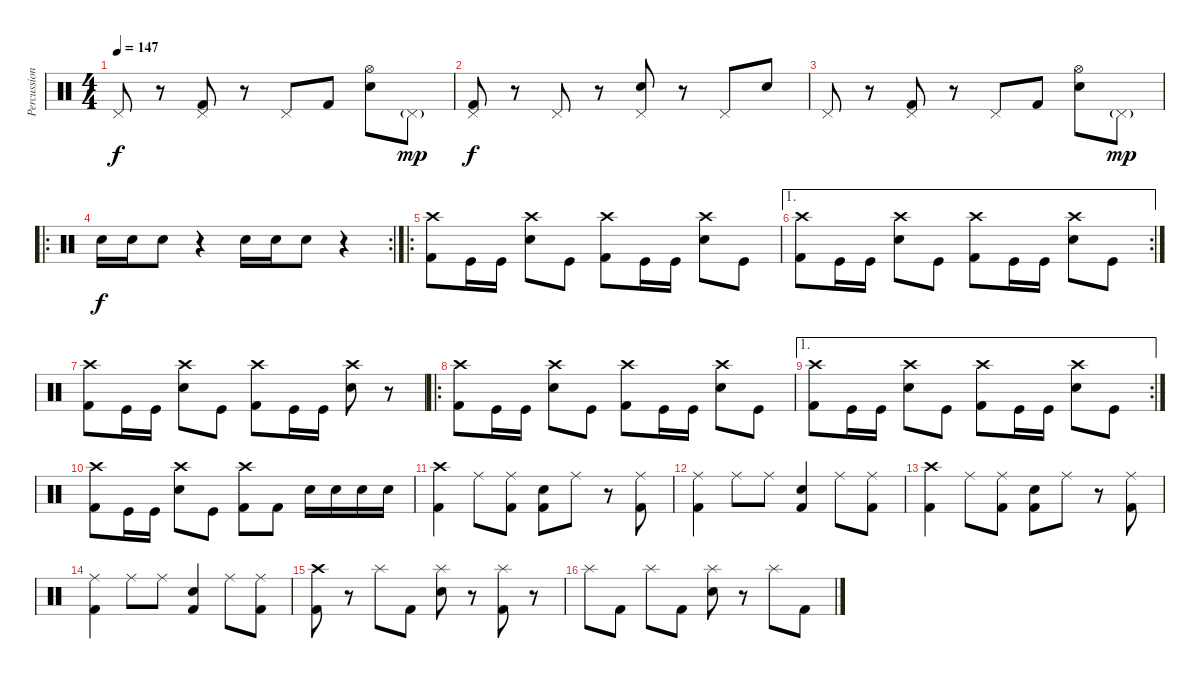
\track ("Percussion" "Percussion") {instrument percussion}
\staff {score}
\articulation defaults
\ts (4 4)
\tempo 147
\clef neutral
\ks c "Pedal Hi-Hat (hit)".8{dy f}
r.8 ("Pedal Hi-Hat (hit)" "Kick (hit) 2").8 r.8 "Pedal Hi-Hat (hit)".8 "Kick (hit) 2".8 ("Hi-Hat (open)" "Electric Snare (hit)").8 "Pedal Hi-Hat (hit)"{g}.8{dy mp} |
("Pedal Hi-Hat (hit)" "Kick (hit) 2").8{dy f} r.8 "Pedal Hi-Hat (hit)".8 r.8 ("Pedal Hi-Hat (hit)" "Electric Snare (hit)").8 r.8 "Pedal Hi-Hat (hit)".8 "Electric Snare (hit)".8 |
"Pedal Hi-Hat (hit)".8 r.8 ("Pedal Hi-Hat (hit)" "Kick (hit) 2").8 r.8 "Pedal Hi-Hat (hit)".8 "Kick (hit) 2".8 ("Hi-Hat (open)" "Electric Snare (hit)").8 "Pedal Hi-Hat (hit)"{g}.8{dy mp} |
\ro
\rc 2 "Electric Snare (hit)".16{dy f} "Electric Snare (hit)".16 "Electric Snare (hit)".8
r.4 "Electric Snare (hit)".16 "Electric Snare (hit)".16 "Electric Snare (hit)".8 r.4 |
\ro
("Crash high (hit)" "Kick (hit) 2").8 "Kick (hit)".16 "Kick (hit)".16 ("Crash high (hit)" "Electric Snare (hit)").8 "Kick (hit)".8 ("Crash high (hit)" "Kick (hit) 2").8 "Kick (hit)".16 "Kick (hit)".16 ("Crash high (hit)" "Electric Snare (hit)").8 "Kick (hit)".8 |
\ae 1
\rc 2
("Crash high (hit)" "Kick (hit) 2").8 "Kick (hit)".16 "Kick (hit)".16 ("Crash high (hit)" "Electric Snare (hit)").8 "Kick (hit)".8 ("Crash high (hit)" "Kick (hit) 2").8 "Kick (hit)".16 "Kick (hit)".16 ("Crash high (hit)" "Electric Snare (hit)").8 "Kick (hit)".8 |
("Crash high (hit)" "Kick (hit) 2").8 "Kick (hit)".16 "Kick (hit)".16 ("Crash high (hit)" "Electric Snare (hit)").8 "Kick (hit)".8 ("Crash high (hit)" "Kick (hit) 2").8 "Kick (hit)".16 "Kick (hit)".16 ("Crash high (hit)" "Electric Snare (hit)").8 r.8 |
\ro
("Crash high (hit)" "Kick (hit) 2").8 "Kick (hit)".16 "Kick (hit)".16 ("Crash high (hit)" "Electric Snare (hit)").8 "Kick (hit)".8 ("Crash high (hit)" "Kick (hit) 2").8 "Kick (hit)".16 "Kick (hit)".16 ("Crash high (hit)" "Electric Snare (hit)").8 "Kick (hit)".8 |
\ae 1
\rc 2
("Crash high (hit)" "Kick (hit) 2").8 "Kick (hit)".16 "Kick (hit)".16 ("Crash high (hit)" "Electric Snare (hit)").8 "Kick (hit)".8 ("Crash high (hit)" "Kick (hit) 2").8 "Kick (hit)".16 "Kick (hit)".16 ("Crash high (hit)" "Electric Snare (hit)").8 "Kick (hit)".8 |
("Crash high (hit)" "Kick (hit) 2").8 "Kick (hit)".16 "Kick (hit)".16 ("Crash high (hit)" "Electric Snare (hit)").8 "Kick (hit)".8 ("Crash high (hit)" "Kick (hit) 2").8 "Kick (hit) 2".8 "Electric Snare (hit)".16 "Electric Snare (hit)".16 "Electric Snare (hit)".16 "Electric Snare (hit)".16 |
("Crash high (hit)" "Kick (hit) 2").4 "Ride (middle)".8 ("Ride (middle)" "Kick (hit) 2").8 ("Electric Snare (hit)" "Kick (hit) 2").8 "Ride (middle)".8 r.8 ("Ride (middle)" "Kick (hit) 2").8 |
("Ride (middle)" "Kick (hit) 2").4 "Ride (middle)".8 "Ride (middle)".8 ("Electric Snare (hit)" "Kick (hit) 2").4 "Ride (middle)".8 ("Ride (middle)" "Kick (hit) 2").8 |
("Crash high (hit)" "Kick (hit) 2").4 "Ride (middle)".8 ("Ride (middle)" "Kick (hit) 2").8 ("Electric Snare (hit)" "Kick (hit) 2").8 "Ride (middle)".8 r.8 ("Ride (middle)" "Kick (hit) 2").8 |
("Ride (middle)" "Kick (hit) 2").4 "Ride (middle)".8 "Ride (middle)".8 ("Electric Snare (hit)" "Kick (hit) 2").4 "Ride (middle)".8 ("Ride (middle)" "Kick (hit) 2").8 |
("Crash high (hit)" "Kick (hit) 2").8 r.8 "Splash (hit)".8 "Kick (hit) 2".8 ("Splash (hit)" "Electric Snare (hit)").8 r.8 ("Splash (hit)" "Kick (hit) 2").8 r.8 |
"Splash (hit)".8 "Kick (hit) 2".8 "Splash (hit)".8 "Kick (hit) 2".8 ("Splash (hit)" "Electric Snare (hit)").8 r.8 "Splash (hit)".8 "Kick (hit) 2".8
